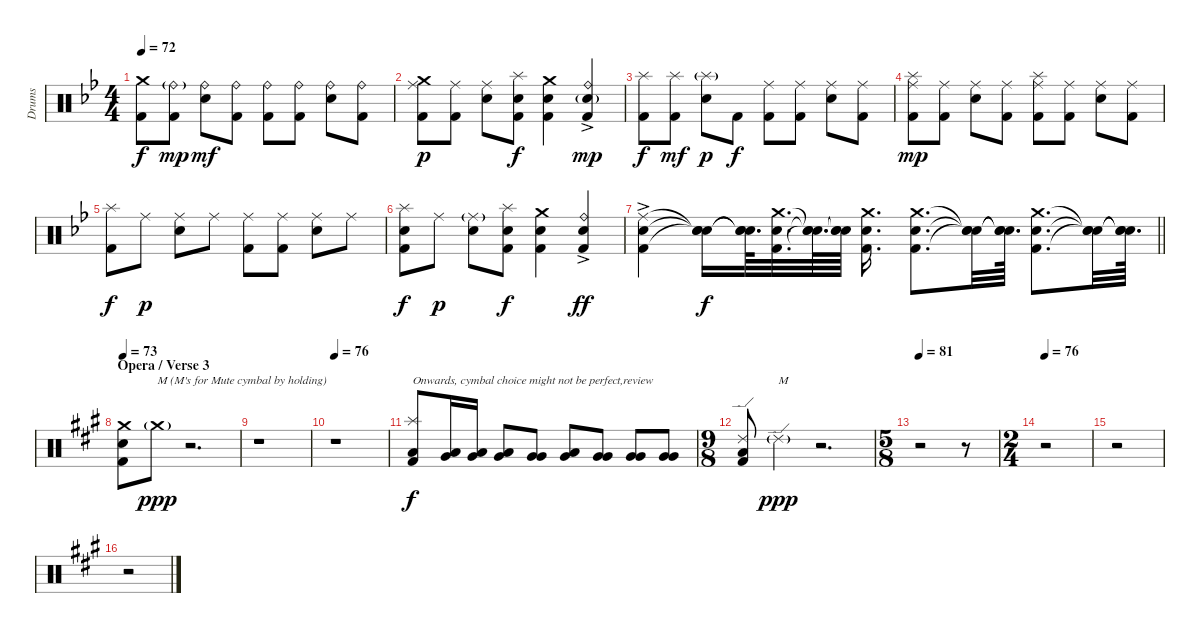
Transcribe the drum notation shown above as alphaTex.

\track ("Drums" "Drums") {instrument percussion}
\staff {score}
\articulation defaults
\ts (4 4)
\tempo 72
\clef neutral
\ks bb
("Crash medium (hit)" "Kick (hit) 2").8{dy f} ("Ride (bell)"{g} "Kick (hit) 2").8{dy mp} ("Ride (bell)" "Electric Snare (hit)").8{dy mf} ("Ride (bell)" "Kick (hit) 2").8 ("Ride (bell)" "Kick (hit) 2").8 ("Ride (bell)" "Kick (hit) 2").8 ("Ride (bell)" "Electric Snare (hit)").8 ("Ride (bell)" "Kick (hit) 2").8 |
("Crash medium (hit)" "Ride (middle)" "Kick (hit) 2").8{dy p} ("Ride (middle)" "Kick (hit) 2").8 ("Ride (middle)" "Electric Snare (hit)").8 ("Splash (hit)" "Electric Snare (hit)" "Kick (hit) 2").8{dy f} ("Crash medium (hit)" "Electric Snare (hit)" "Kick (hit) 2").4 ("Ride (bell)"{ac} "Electric Snare (hit)"{g} "Kick (hit) 2").4{dy mp} |
("Splash (hit)" "Kick (hit) 2").8{dy f} ("Splash (hit)" "Kick (hit) 2").8{dy mf} ("Splash (hit)"{g} "Electric Snare (hit)").8{dy p} "Kick (hit) 2".8{dy f} ("Ride (middle)" "Kick (hit) 2").8 ("Ride (middle)" "Kick (hit) 2").8 ("Ride (middle)" "Electric Snare (hit)").8 ("Ride (middle)" "Kick (hit) 2").8 |
("Splash (hit)" "Ride (middle)" "Kick (hit) 2").8{dy mp} ("Ride (middle)" "Kick (hit) 2").8 ("Ride (middle)" "Electric Snare (hit)").8 ("Ride (middle)" "Kick (hit) 2").8 ("Splash (hit)" "Ride (middle)" "Kick (hit) 2").8 ("Ride (middle)" "Kick (hit) 2").8 ("Ride (middle)" "Electric Snare (hit)").8 ("Ride (middle)" "Kick (hit) 2").8 |
("Splash (hit)" "Kick (hit) 2").8{dy f} "Ride (middle)".8{dy p} ("Ride (middle)" "Electric Snare (hit)").8 "Ride (middle)".8 ("Ride (middle)" "Kick (hit) 2").8 ("Ride (middle)" "Kick (hit) 2").8 ("Ride (middle)" "Electric Snare (hit)").8 "Ride (middle)".8 |
("Splash (hit)" "Electric Snare (hit)" "Kick (hit) 2").8{dy f} "Ride (middle)".8{dy p} ("Ride (middle)"{g} "Electric Snare (hit)").8 ("Splash (hit)" "Electric Snare (hit)" "Kick (hit) 2").8{dy f} ("Crash medium (hit)" "Electric Snare (hit)" "Kick (hit) 2").4 ("Ride (bell)"{ac} "Electric Snare (hit)" "Kick (hit) 2").4{dy ff} |
\barLineRight lightlight
("Ride (middle)"{ac} "Electric Snare (hit)" "Kick (hit) 2").4 ("Snare (hit)"{t} "Snare (hit)"{t} "Snare (hit)"{t}).16{dy f} ("Snare (hit)"{t} "Snare (hit)"{t} "Snare (hit)"{t}).64{d} ("Crash medium (hit)" "Electric Snare (hit)" "Kick (hit) 2").32{d} ("Snare (hit)"{t} "Snare (hit)"{t} "Snare (hit)"{t}).64{d} ("Snare (hit)"{t} "Snare (hit)"{t} "Snare (hit)"{t}).64{beam split} ("Crash medium (hit)" "Electric Snare (hit)" "Kick (hit) 2").16{d} ("Crash medium (hit)" "Electric Snare (hit)" "Kick (hit) 2").8{d} ("Snare (hit)"{t} "Snare (hit)"{t} "Snare (hit)"{t}).32 ("Snare (hit)"{t} "Snare (hit)"{t} "Snare (hit)"{t}).64{d} ("Crash medium (hit)" "Electric Snare (hit)" "Kick (hit) 2").8{d} ("Snare (hit)"{t} "Snare (hit)"{t} "Snare (hit)"{t}).32 ("Snare (hit)"{t} "Snare (hit)"{t} "Snare (hit)"{t}).64{d} |
\section ("" "Opera / Verse 3")
\tempo 73
\ks a
("Crash medium (hit)" "Electric Snare (hit)" "Kick (hit) 2").8 "Crash medium (hit)"{g}.8{txt "M (M's for Mute cymbal by holding)" dy ppp} r.2{d} |
r.1 |
\tempo 76
r.1 |
("Splash (hit)" "Low Tom (hit)" "Kick (hit) 2").8{txt "Onwards, cymbal choice might not be perfect,review" dy f} ("Low Tom (hit)" "Very Low Tom (hit)").16 ("Low Tom (hit)" "Very Low Tom (hit)").16 ("Low Tom (hit)" "Very Low Tom (hit)").8 ("Very Low Tom (hit)" "Very Low Tom (hit)").8 ("Very Low Tom (hit)" "Low Floor Tom (hit)").8 ("Very Low Tom (hit)" "Very Low Tom (hit)").8 ("Very Low Tom (hit)" "Very Low Tom (hit)").8 ("Very Low Tom (hit)" "Very Low Tom (hit)").8 |
\ts (9 8)
("Ride (edge) 2" "Low Floor Tom (hit)" "Kick (hit) 2").8 "Ride (edge) 2"{g}.4{txt "M" dy ppp} r.2{d} |
\ts (5 8)
\tempo 81
r.2 r.8 |
\ts (2 4)
\tempo 76
r.2 |
r.2 |
r.2
